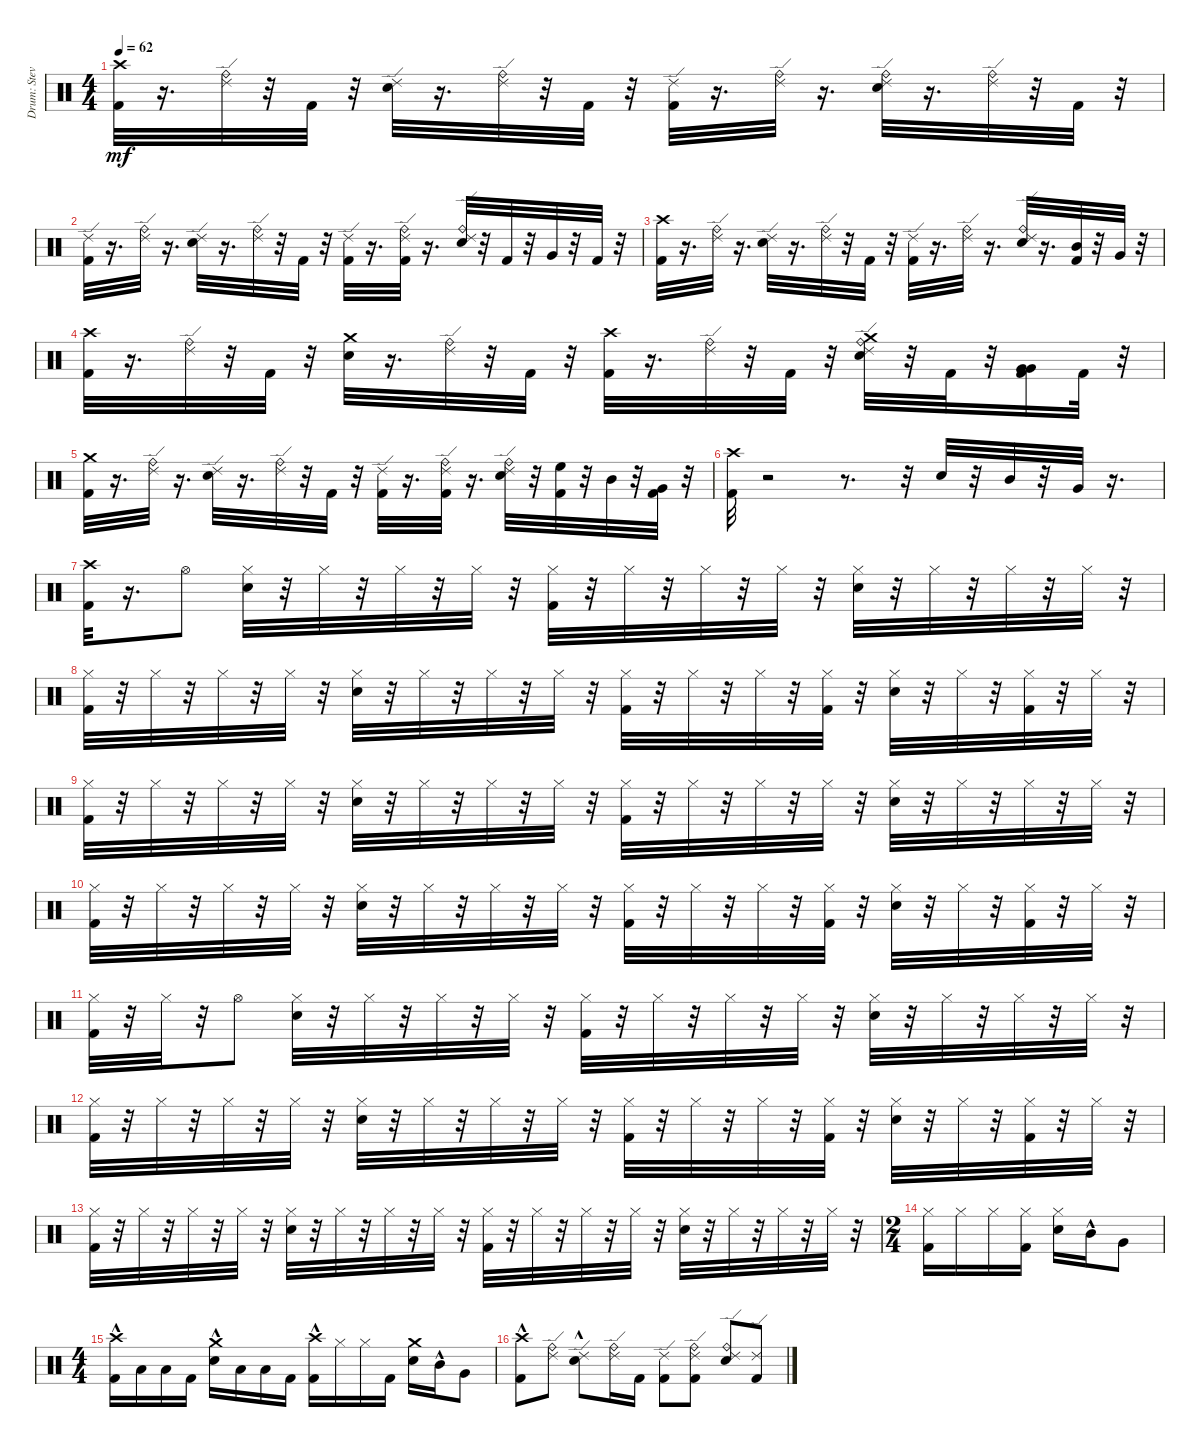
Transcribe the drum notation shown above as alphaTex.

\track ("Drum: Steven Adler" "Drum: Stev") {instrument percussion}
\staff {score}
\articulation defaults
\ts (4 4)
\tempo 62
\clef neutral
\ks c
("Crash high (hit)" "Kick (hit) 2").32{dy mf} r.16{d} ("Ride (edge) 2" "Ride (bell)").32 r.32 "Kick (hit) 2".32 r.32 ("Ride (edge) 2" "Snare (hit) 2").32 r.16{d} ("Ride (bell)" "Ride (edge) 2").32 r.32 "Kick (hit) 2".32 r.32 ("Kick (hit) 2" "Ride (edge) 2").32 r.16{d} ("Ride (bell)" "Ride (edge) 2").32 r.16{d} ("Snare (hit) 2" "Ride (bell)" "Ride (edge) 2").32 r.16{d} ("Ride (bell)" "Ride (edge) 2").32 r.32 "Kick (hit) 2".32 r.32 |
("Kick (hit) 2" "Ride (edge) 2").32 r.16{d} ("Ride (bell)" "Ride (edge) 2").32 r.16{d} ("Snare (hit) 2" "Ride (edge) 2").32 r.16{d} ("Ride (bell)" "Ride (edge) 2").32 r.32 "Kick (hit) 2".32 r.32 ("Kick (hit) 2" "Ride (edge) 2").32 r.16{d} ("Ride (bell)" "Kick (hit) 2" "Ride (edge) 2").32 r.16{d} ("Snare (hit) 2" "Ride (edge) 2" "Ride (bell)").32 r.32 "Kick (hit) 2".32 r.32 "Very Low Tom (hit)".32 r.32 "Kick (hit) 2".32 r.32 |
("Kick (hit) 2" "Crash high (hit)").32 r.16{d} ("Ride (bell)" "Ride (edge) 2").32 r.16{d} ("Snare (hit) 2" "Ride (edge) 2").32 r.16{d} ("Ride (bell)" "Ride (edge) 2").32 r.32 "Kick (hit) 2".32 r.32 ("Ride (edge) 2" "Kick (hit) 2").32 r.16{d} ("Ride (bell)" "Ride (edge) 2").32 r.16{d} ("Ride (bell)" "Ride (edge) 2" "Snare (hit) 2").32 r.16{d} ("Mid Tom (hit)" "Kick (hit) 2").32 r.32 "Very Low Tom (hit)".32 r.32 |
("Kick (hit) 2" "Crash high (hit)").32 r.16{d} ("Ride (edge) 2" "Ride (bell)").32 r.32 "Kick (hit) 2".32 r.32 ("Snare (hit) 2" "Crash medium (hit)").32 r.16{d} ("Ride (edge) 2" "Ride (bell)").32 r.32 "Kick (hit) 2".32 r.32 ("Crash high (hit)" "Kick (hit) 2").32 r.16{d} ("Ride (edge) 2" "Ride (bell)").32 r.32 "Kick (hit) 2".32 r.32 ("Ride (edge) 2" "Crash medium (hit)" "Ride (bell)" "Snare (hit) 2").32 r.32 "Kick (hit) 2".32 r.32 ("Kick (hit) 2" "Very Low Tom (hit)" "Very Low Tom (hit)").16 "Kick (hit) 2".32 r.32 |
("Crash medium (hit)" "Kick (hit) 2").32 r.16{d} ("Ride (edge) 2" "Ride (bell)").32 r.16{d} ("Snare (hit) 2" "Ride (edge) 2").32 r.16{d} ("Ride (bell)" "Ride (edge) 2").32 r.32 "Kick (hit) 2".32 r.32 ("Kick (hit) 2" "Ride (edge) 2").32 r.16{d} ("Kick (hit) 2" "Ride (edge) 2" "Ride (bell)").32 r.16{d} ("Snare (hit) 2" "Ride (edge) 2" "Ride (bell)").32 r.32 ("Kick (hit) 2" "High Floor Tom (hit)").32 r.32 "Mid Tom (hit)".32 r.32 ("Very Low Tom (hit)" "Kick (hit) 2").32 r.32 |
("Kick (hit) 2" "Crash high (hit)").32 r.2 r.8{d} r.32 "Snare (hit) 2".32 r.32 "Mid Tom (hit)".32 r.32 "Very Low Tom (hit)".32 r.16{d} |
("Crash high (hit)" "Kick (hit) 2").32 r.16{d} "Hi-Hat (open)".8 ("Hi-Hat (closed)" "Snare (hit) 2").32 r.32 "Hi-Hat (closed)".32 r.32 "Hi-Hat (closed)".32 r.32 "Hi-Hat (closed)".32 r.32 ("Hi-Hat (closed)" "Kick (hit) 2").32 r.32 "Hi-Hat (closed)".32 r.32 "Hi-Hat (closed)".32 r.32 "Hi-Hat (closed)".32 r.32 ("Snare (hit) 2" "Hi-Hat (closed)").32 r.32 "Hi-Hat (closed)".32 r.32 "Hi-Hat (closed)".32 r.32 "Hi-Hat (closed)".32 r.32 |
("Kick (hit) 2" "Hi-Hat (closed)").32 r.32 "Hi-Hat (closed)".32 r.32 "Hi-Hat (closed)".32 r.32 "Hi-Hat (closed)".32 r.32 ("Hi-Hat (closed)" "Snare (hit) 2").32 r.32 "Hi-Hat (closed)".32 r.32 "Hi-Hat (closed)".32 r.32 "Hi-Hat (closed)".32 r.32 ("Kick (hit) 2" "Hi-Hat (closed)").32 r.32 "Hi-Hat (closed)".32 r.32 "Hi-Hat (closed)".32 r.32 ("Hi-Hat (closed)" "Kick (hit) 2").32 r.32 ("Snare (hit) 2" "Hi-Hat (closed)").32 r.32 "Hi-Hat (closed)".32 r.32 ("Kick (hit) 2" "Hi-Hat (closed)").32 r.32 "Hi-Hat (closed)".32 r.32 |
("Kick (hit) 2" "Hi-Hat (closed)").32 r.32 "Hi-Hat (closed)".32 r.32 "Hi-Hat (closed)".32 r.32 "Hi-Hat (closed)".32 r.32 ("Snare (hit) 2" "Hi-Hat (closed)").32 r.32 "Hi-Hat (closed)".32 r.32 "Hi-Hat (closed)".32 r.32 "Hi-Hat (closed)".32 r.32 ("Hi-Hat (closed)" "Kick (hit) 2").32 r.32 "Hi-Hat (closed)".32 r.32 "Hi-Hat (closed)".32 r.32 "Hi-Hat (closed)".32 r.32 ("Snare (hit) 2" "Hi-Hat (closed)").32 r.32 "Hi-Hat (closed)".32 r.32 "Hi-Hat (closed)".32 r.32 "Hi-Hat (closed)".32 r.32 |
("Hi-Hat (closed)" "Kick (hit) 2").32 r.32 "Hi-Hat (closed)".32 r.32 "Hi-Hat (closed)".32 r.32 "Hi-Hat (closed)".32 r.32 ("Hi-Hat (closed)" "Snare (hit) 2").32 r.32 "Hi-Hat (closed)".32 r.32 "Hi-Hat (closed)".32 r.32 "Hi-Hat (closed)".32 r.32 ("Hi-Hat (closed)" "Kick (hit) 2").32 r.32 "Hi-Hat (closed)".32 r.32 "Hi-Hat (closed)".32 r.32 ("Hi-Hat (closed)" "Kick (hit) 2").32 r.32 ("Snare (hit) 2" "Hi-Hat (closed)").32 r.32 "Hi-Hat (closed)".32 r.32 ("Hi-Hat (closed)" "Kick (hit) 2").32 r.32 "Hi-Hat (closed)".32 r.32 |
("Kick (hit) 2" "Hi-Hat (closed)").32 r.32 "Hi-Hat (closed)".32 r.32 "Hi-Hat (open)".8 ("Hi-Hat (closed)" "Snare (hit) 2").32 r.32 "Hi-Hat (closed)".32 r.32 "Hi-Hat (closed)".32 r.32 "Hi-Hat (closed)".32 r.32 ("Hi-Hat (closed)" "Kick (hit) 2").32 r.32 "Hi-Hat (closed)".32 r.32 "Hi-Hat (closed)".32 r.32 "Hi-Hat (closed)".32 r.32 ("Hi-Hat (closed)" "Snare (hit) 2").32 r.32 "Hi-Hat (closed)".32 r.32 "Hi-Hat (closed)".32 r.32 "Hi-Hat (closed)".32 r.32 |
("Hi-Hat (closed)" "Kick (hit) 2").32 r.32 "Hi-Hat (closed)".32 r.32 "Hi-Hat (closed)".32 r.32 "Hi-Hat (closed)".32 r.32 ("Snare (hit) 2" "Hi-Hat (closed)").32 r.32 "Hi-Hat (closed)".32 r.32 "Hi-Hat (closed)".32 r.32 "Hi-Hat (closed)".32 r.32 ("Hi-Hat (closed)" "Kick (hit) 2").32 r.32 "Hi-Hat (closed)".32 r.32 "Hi-Hat (closed)".32 r.32 ("Hi-Hat (closed)" "Kick (hit) 2").32 r.32 ("Snare (hit) 2" "Hi-Hat (closed)").32 r.32 "Hi-Hat (closed)".32 r.32 ("Kick (hit) 2" "Hi-Hat (closed)").32 r.32 "Hi-Hat (closed)".32 r.32 |
("Kick (hit) 2" "Hi-Hat (closed)").32 r.32 "Hi-Hat (closed)".32 r.32 "Hi-Hat (closed)".32 r.32 "Hi-Hat (closed)".32 r.32 ("Snare (hit) 2" "Hi-Hat (closed)").32 r.32 "Hi-Hat (closed)".32 r.32 "Hi-Hat (closed)".32 r.32 "Hi-Hat (closed)".32 r.32 ("Hi-Hat (closed)" "Kick (hit) 2").32 r.32 "Hi-Hat (closed)".32 r.32 "Hi-Hat (closed)".32 r.32 "Hi-Hat (closed)".32 r.32 ("Hi-Hat (closed)" "Snare (hit) 2").32 r.32 "Hi-Hat (closed)".32 r.32 "Hi-Hat (closed)".32 r.32 "Hi-Hat (closed)".32 r.32 |
\ts (2 4)
("Kick (hit) 2" "Hi-Hat (closed)").16 "Hi-Hat (closed)".16 "Hi-Hat (closed)".16 ("Kick (hit) 2" "Hi-Hat (closed)").16 ("Snare (hit) 2" "Hi-Hat (closed)").16 "Mid Tom (hit)"{hac}.16 "Very Low Tom (hit)".8 |
\ts (4 4)
("Crash high (hit)"{hac} "Kick (hit) 2").16 "Low Floor Tom (hit)".16 "Low Floor Tom (hit)".16 "Kick (hit) 2".16 ("Crash medium (hit)"{hac} "Snare (hit) 2").16 "Low Floor Tom (hit)".16 "Low Floor Tom (hit)".16 "Kick (hit) 2".16 ("Crash high (hit)"{hac} "Kick (hit) 2").16 "Hi-Hat (closed)".16 "Hi-Hat (closed)".16 "Kick (hit) 2".16 ("Crash medium (hit)" "Snare (hit) 2").16 "Mid Tom (hit)"{hac}.16 "Very Low Tom (hit)".8 |
("Crash high (hit)" "Kick (hit) 2"{hac}).8 ("Ride (bell)" "Ride (edge) 2").8 ("Ride (edge) 2" "Snare (hit) 2"{hac}).8 ("Ride (bell)" "Ride (edge) 2").16 "Kick (hit) 2".16 ("Ride (edge) 2" "Kick (hit) 2").8 ("Ride (bell)" "Ride (edge) 2" "Kick (hit) 2").8 ("Ride (bell)" "Ride (edge) 2" "Snare (hit) 2").8 ("Ride (edge) 2" "Kick (hit) 2").8
